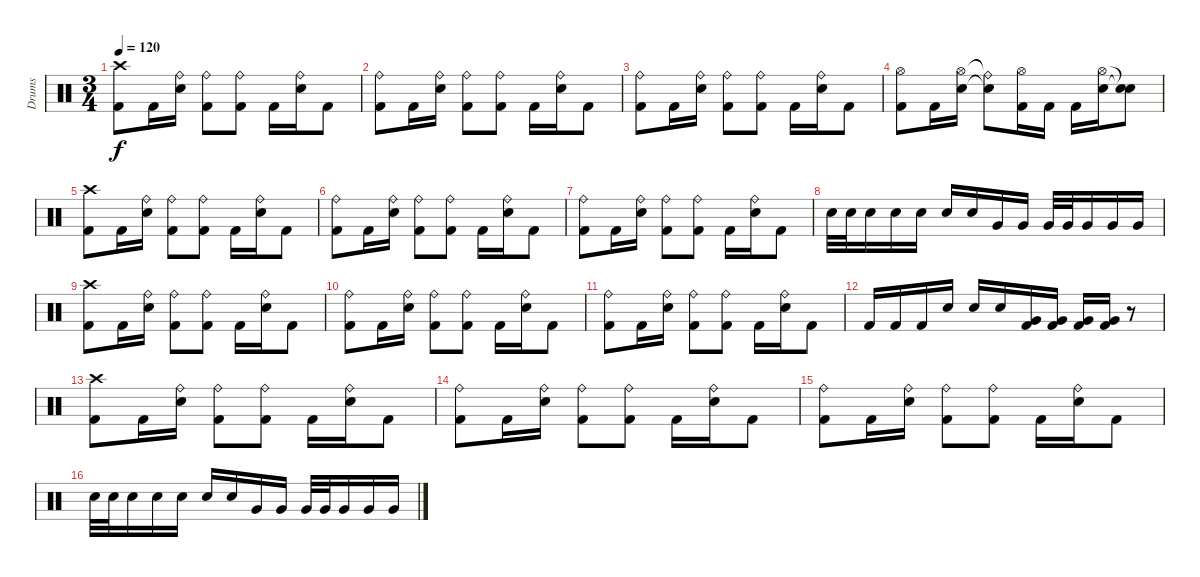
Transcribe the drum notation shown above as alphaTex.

\track ("Drums" "Drums") {instrument percussion}
\staff {score}
\articulation defaults
\ts (3 4)
\tempo 120
\clef neutral
\ks c
("Crash high (hit)" "Kick (hit) 2").8{dy f} "Kick (hit) 2".16 ("Ride (bell)" "Electric Snare (hit)").16 ("Ride (bell)" "Kick (hit) 2").8 ("Ride (bell)" "Kick (hit) 2").8 "Kick (hit) 2".16 ("Ride (bell)" "Electric Snare (hit)").16 "Kick (hit) 2".8 |
("Ride (bell)" "Kick (hit) 2").8 "Kick (hit) 2".16 ("Ride (bell)" "Electric Snare (hit)").16 ("Ride (bell)" "Kick (hit) 2").8 ("Ride (bell)" "Kick (hit) 2").8 "Kick (hit) 2".16 ("Ride (bell)" "Electric Snare (hit)").16 "Kick (hit) 2".8 |
("Ride (bell)" "Kick (hit) 2").8 "Kick (hit) 2".16 ("Ride (bell)" "Electric Snare (hit)").16 ("Ride (bell)" "Kick (hit) 2").8 ("Ride (bell)" "Kick (hit) 2").8 "Kick (hit) 2".16 ("Ride (bell)" "Electric Snare (hit)").16 "Kick (hit) 2".8 |
("Hi-Hat (open)" "Kick (hit) 2").8 "Kick (hit) 2".16 ("Hi-Hat (open)" "Electric Snare (hit)").16 ("Ride (bell)"{t} "Snare (hit)"{t}).8 ("Hi-Hat (open)" "Kick (hit) 2").16 "Kick (hit) 2".16 "Kick (hit) 2".16 ("Hi-Hat (open)" "Electric Snare (hit)").16 ("Snare (hit)"{t} "Snare (hit)"{t}).8 |
("Crash high (hit)" "Kick (hit) 2").8 "Kick (hit) 2".16 ("Ride (bell)" "Electric Snare (hit)").16 ("Ride (bell)" "Kick (hit) 2").8 ("Ride (bell)" "Kick (hit) 2").8 "Kick (hit) 2".16 ("Ride (bell)" "Electric Snare (hit)").16 "Kick (hit) 2".8 |
("Ride (bell)" "Kick (hit) 2").8 "Kick (hit) 2".16 ("Ride (bell)" "Electric Snare (hit)").16 ("Ride (bell)" "Kick (hit) 2").8 ("Ride (bell)" "Kick (hit) 2").8 "Kick (hit) 2".16 ("Ride (bell)" "Electric Snare (hit)").16 "Kick (hit) 2".8 |
("Ride (bell)" "Kick (hit) 2").8 "Kick (hit) 2".16 ("Ride (bell)" "Electric Snare (hit)").16 ("Ride (bell)" "Kick (hit) 2").8 ("Ride (bell)" "Kick (hit) 2").8 "Kick (hit) 2".16 ("Ride (bell)" "Electric Snare (hit)").16 "Kick (hit) 2".8 |
"Electric Snare (hit)".32 "Electric Snare (hit)".32 "Electric Snare (hit)".16 "Electric Snare (hit)".16 "Electric Snare (hit)".16 "Electric Snare (hit)".16 "Electric Snare (hit)".16 "Very Low Tom (hit)".16 "Very Low Tom (hit)".16 "Very Low Tom (hit)".32 "Very Low Tom (hit)".32 "Very Low Tom (hit)".16 "Very Low Tom (hit)".16 "Very Low Tom (hit)".16 |
("Crash high (hit)" "Kick (hit) 2").8 "Kick (hit) 2".16 ("Ride (bell)" "Electric Snare (hit)").16 ("Ride (bell)" "Kick (hit) 2").8 ("Ride (bell)" "Kick (hit) 2").8 "Kick (hit) 2".16 ("Ride (bell)" "Electric Snare (hit)").16 "Kick (hit) 2".8 |
("Ride (bell)" "Kick (hit) 2").8 "Kick (hit) 2".16 ("Ride (bell)" "Electric Snare (hit)").16 ("Ride (bell)" "Kick (hit) 2").8 ("Ride (bell)" "Kick (hit) 2").8 "Kick (hit) 2".16 ("Ride (bell)" "Electric Snare (hit)").16 "Kick (hit) 2".8 |
("Ride (bell)" "Kick (hit) 2").8 "Kick (hit) 2".16 ("Ride (bell)" "Electric Snare (hit)").16 ("Ride (bell)" "Kick (hit) 2").8 ("Ride (bell)" "Kick (hit) 2").8 "Kick (hit) 2".16 ("Ride (bell)" "Electric Snare (hit)").16 "Kick (hit) 2".8 |
"Kick (hit) 2".16 "Kick (hit) 2".16 "Kick (hit) 2".16 "Electric Snare (hit)".16 "Electric Snare (hit)".16 "Electric Snare (hit)".16 ("Very Low Tom (hit)" "Kick (hit) 2").16 ("Very Low Tom (hit)" "Kick (hit) 2").16 ("Very Low Tom (hit)" "Kick (hit) 2").16 ("Very Low Tom (hit)" "Kick (hit) 2").16 r.8 |
("Crash high (hit)" "Kick (hit) 2").8 "Kick (hit) 2".16 ("Ride (bell)" "Electric Snare (hit)").16 ("Ride (bell)" "Kick (hit) 2").8 ("Ride (bell)" "Kick (hit) 2").8 "Kick (hit) 2".16 ("Ride (bell)" "Electric Snare (hit)").16 "Kick (hit) 2".8 |
("Ride (bell)" "Kick (hit) 2").8 "Kick (hit) 2".16 ("Ride (bell)" "Electric Snare (hit)").16 ("Ride (bell)" "Kick (hit) 2").8 ("Ride (bell)" "Kick (hit) 2").8 "Kick (hit) 2".16 ("Ride (bell)" "Electric Snare (hit)").16 "Kick (hit) 2".8 |
("Ride (bell)" "Kick (hit) 2").8 "Kick (hit) 2".16 ("Ride (bell)" "Electric Snare (hit)").16 ("Ride (bell)" "Kick (hit) 2").8 ("Ride (bell)" "Kick (hit) 2").8 "Kick (hit) 2".16 ("Ride (bell)" "Electric Snare (hit)").16 "Kick (hit) 2".8 |
"Electric Snare (hit)".32 "Electric Snare (hit)".32 "Electric Snare (hit)".16 "Electric Snare (hit)".16 "Electric Snare (hit)".16 "Electric Snare (hit)".16 "Electric Snare (hit)".16 "Very Low Tom (hit)".16 "Very Low Tom (hit)".16 "Very Low Tom (hit)".32 "Very Low Tom (hit)".32 "Very Low Tom (hit)".16 "Very Low Tom (hit)".16 "Very Low Tom (hit)".16
